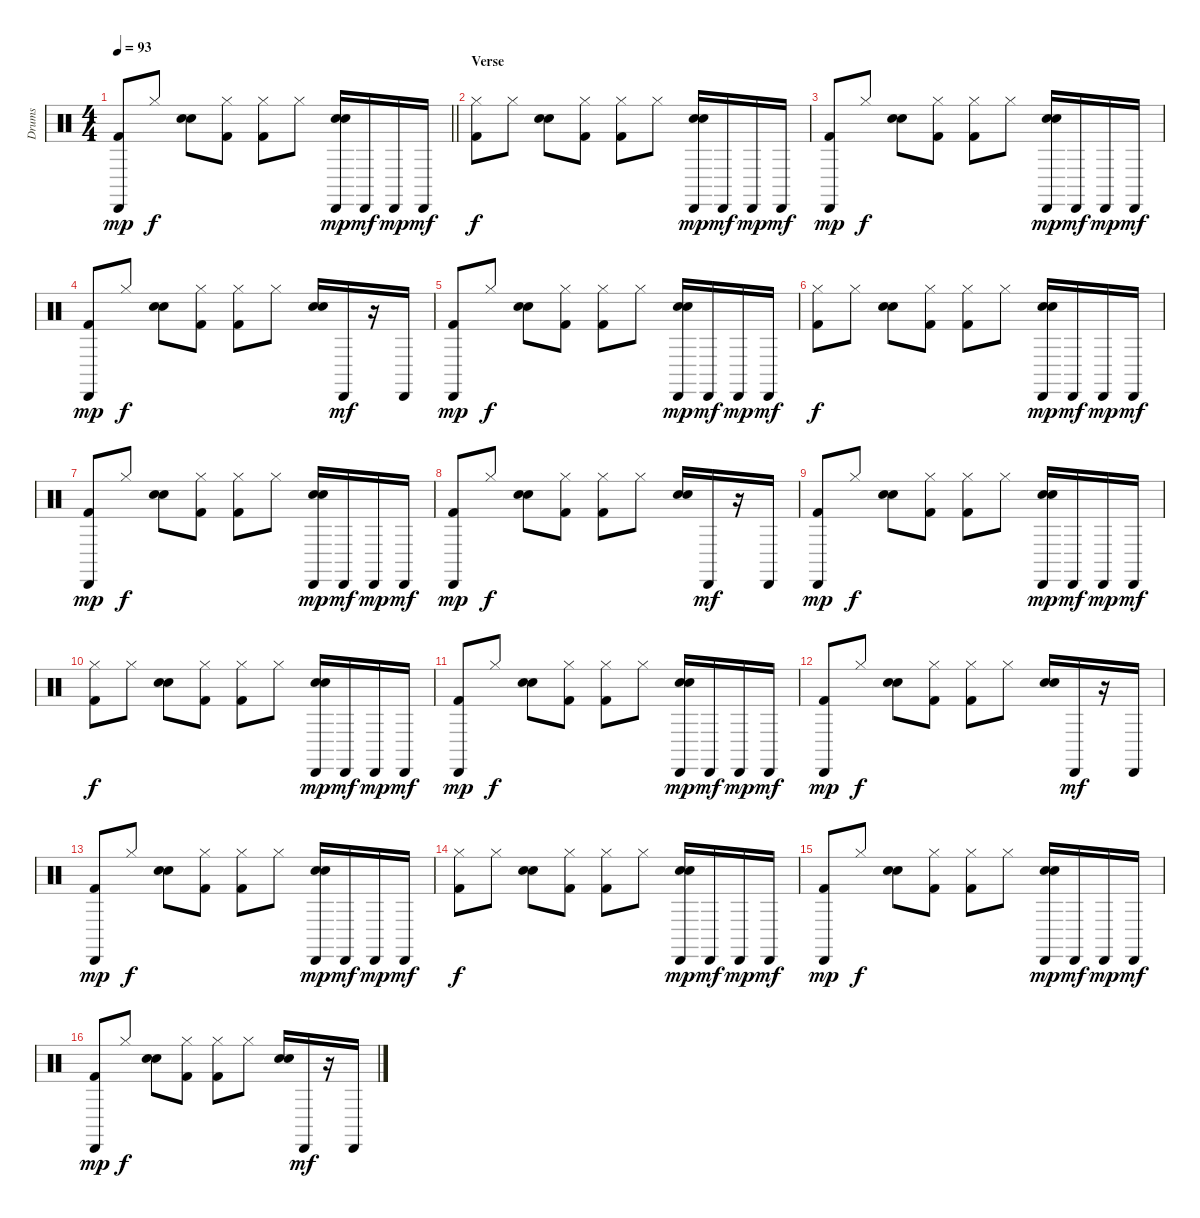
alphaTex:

\track ("Drums" "Drums") {instrument percussion}
\staff {score}
\articulation defaults
\ts (4 4)
\tempo 93
\clef neutral
\barLineRight lightlight
\ks c
("Kick (hit) 2" "Cabasa (hit)").8{dy mp} "Hi-Hat (closed)".8{dy f} ("Hand Clap (hit)" "Snare (hit) 2").8 ("Hi-Hat (closed)" "Kick (hit) 2").8 ("Hi-Hat (closed)" "Kick (hit) 2").8 "Hi-Hat (closed)".8 ("Hand Clap (hit)" "Snare (hit) 2" "Cabasa (hit)").16{dy mp} "Cabasa (hit)".16{dy mf} "Cabasa (hit)".16{dy mp} "Cabasa (hit)".16{dy mf} |
\section ("" "Verse")
("Hi-Hat (closed)" "Kick (hit) 2").8{dy f} "Hi-Hat (closed)".8 ("Snare (hit) 2" "Hand Clap (hit)").8 ("Kick (hit) 2" "Hi-Hat (closed)").8 ("Hi-Hat (closed)" "Kick (hit) 2").8 "Hi-Hat (closed)".8 ("Cabasa (hit)" "Snare (hit) 2" "Hand Clap (hit)").16{dy mp} "Cabasa (hit)".16{dy mf} "Cabasa (hit)".16{dy mp} "Cabasa (hit)".16{dy mf} |
("Cabasa (hit)" "Kick (hit) 2").8{dy mp} "Hi-Hat (closed)".8{dy f} ("Snare (hit) 2" "Hand Clap (hit)").8 ("Hi-Hat (closed)" "Kick (hit) 2").8 ("Hi-Hat (closed)" "Kick (hit) 2").8 "Hi-Hat (closed)".8 ("Cabasa (hit)" "Snare (hit) 2" "Hand Clap (hit)").16{dy mp} "Cabasa (hit)".16{dy mf} "Cabasa (hit)".16{dy mp} "Cabasa (hit)".16{dy mf} |
("Cabasa (hit)" "Kick (hit) 2").8{dy mp} "Hi-Hat (closed)".8{dy f} ("Snare (hit) 2" "Hand Clap (hit)").8 ("Kick (hit) 2" "Hi-Hat (closed)").8 ("Hi-Hat (closed)" "Kick (hit) 2").8 "Hi-Hat (closed)".8 ("Hand Clap (hit)" "Snare (hit) 2").16 "Cabasa (hit)".16{dy mf} r.16 "Cabasa (hit)".16 |
("Kick (hit) 2" "Cabasa (hit)").8{dy mp} "Hi-Hat (closed)".8{dy f} ("Hand Clap (hit)" "Snare (hit) 2").8 ("Kick (hit) 2" "Hi-Hat (closed)").8 ("Hi-Hat (closed)" "Kick (hit) 2").8 "Hi-Hat (closed)".8 ("Hand Clap (hit)" "Snare (hit) 2" "Cabasa (hit)").16{dy mp} "Cabasa (hit)".16{dy mf} "Cabasa (hit)".16{dy mp} "Cabasa (hit)".16{dy mf} |
("Hi-Hat (closed)" "Kick (hit) 2").8{dy f} "Hi-Hat (closed)".8 ("Snare (hit) 2" "Hand Clap (hit)").8 ("Kick (hit) 2" "Hi-Hat (closed)").8 ("Hi-Hat (closed)" "Kick (hit) 2").8 "Hi-Hat (closed)".8 ("Hand Clap (hit)" "Snare (hit) 2" "Cabasa (hit)").16{dy mp} "Cabasa (hit)".16{dy mf} "Cabasa (hit)".16{dy mp} "Cabasa (hit)".16{dy mf} |
("Cabasa (hit)" "Kick (hit) 2").8{dy mp} "Hi-Hat (closed)".8{dy f} ("Snare (hit) 2" "Hand Clap (hit)").8 ("Hi-Hat (closed)" "Kick (hit) 2").8 ("Kick (hit) 2" "Hi-Hat (closed)").8 "Hi-Hat (closed)".8 ("Cabasa (hit)" "Snare (hit) 2" "Hand Clap (hit)").16{dy mp} "Cabasa (hit)".16{dy mf} "Cabasa (hit)".16{dy mp} "Cabasa (hit)".16{dy mf} |
("Kick (hit) 2" "Cabasa (hit)").8{dy mp} "Hi-Hat (closed)".8{dy f} ("Snare (hit) 2" "Hand Clap (hit)").8 ("Hi-Hat (closed)" "Kick (hit) 2").8 ("Kick (hit) 2" "Hi-Hat (closed)").8 "Hi-Hat (closed)".8 ("Hand Clap (hit)" "Snare (hit) 2").16 "Cabasa (hit)".16{dy mf} r.16 "Cabasa (hit)".16 |
("Kick (hit) 2" "Cabasa (hit)").8{dy mp} "Hi-Hat (closed)".8{dy f} ("Snare (hit) 2" "Hand Clap (hit)").8 ("Kick (hit) 2" "Hi-Hat (closed)").8 ("Kick (hit) 2" "Hi-Hat (closed)").8 "Hi-Hat (closed)".8 ("Hand Clap (hit)" "Snare (hit) 2" "Cabasa (hit)").16{dy mp} "Cabasa (hit)".16{dy mf} "Cabasa (hit)".16{dy mp} "Cabasa (hit)".16{dy mf} |
("Hi-Hat (closed)" "Kick (hit) 2").8{dy f} "Hi-Hat (closed)".8 ("Hand Clap (hit)" "Snare (hit) 2").8 ("Kick (hit) 2" "Hi-Hat (closed)").8 ("Hi-Hat (closed)" "Kick (hit) 2").8 "Hi-Hat (closed)".8 ("Snare (hit) 2" "Cabasa (hit)" "Hand Clap (hit)").16{dy mp} "Cabasa (hit)".16{dy mf} "Cabasa (hit)".16{dy mp} "Cabasa (hit)".16{dy mf} |
("Kick (hit) 2" "Cabasa (hit)").8{dy mp} "Hi-Hat (closed)".8{dy f} ("Snare (hit) 2" "Hand Clap (hit)").8 ("Hi-Hat (closed)" "Kick (hit) 2").8 ("Kick (hit) 2" "Hi-Hat (closed)").8 "Hi-Hat (closed)".8 ("Hand Clap (hit)" "Snare (hit) 2" "Cabasa (hit)").16{dy mp} "Cabasa (hit)".16{dy mf} "Cabasa (hit)".16{dy mp} "Cabasa (hit)".16{dy mf} |
("Cabasa (hit)" "Kick (hit) 2").8{dy mp} "Hi-Hat (closed)".8{dy f} ("Snare (hit) 2" "Hand Clap (hit)").8 ("Hi-Hat (closed)" "Kick (hit) 2").8 ("Hi-Hat (closed)" "Kick (hit) 2").8 "Hi-Hat (closed)".8 ("Snare (hit) 2" "Hand Clap (hit)").16 "Cabasa (hit)".16{dy mf} r.16 "Cabasa (hit)".16 |
("Kick (hit) 2" "Cabasa (hit)").8{dy mp} "Hi-Hat (closed)".8{dy f} ("Hand Clap (hit)" "Snare (hit) 2").8 ("Kick (hit) 2" "Hi-Hat (closed)").8 ("Hi-Hat (closed)" "Kick (hit) 2").8 "Hi-Hat (closed)".8 ("Hand Clap (hit)" "Snare (hit) 2" "Cabasa (hit)").16{dy mp} "Cabasa (hit)".16{dy mf} "Cabasa (hit)".16{dy mp} "Cabasa (hit)".16{dy mf} |
("Hi-Hat (closed)" "Kick (hit) 2").8{dy f} "Hi-Hat (closed)".8 ("Hand Clap (hit)" "Snare (hit) 2").8 ("Kick (hit) 2" "Hi-Hat (closed)").8 ("Hi-Hat (closed)" "Kick (hit) 2").8 "Hi-Hat (closed)".8 ("Snare (hit) 2" "Cabasa (hit)" "Hand Clap (hit)").16{dy mp} "Cabasa (hit)".16{dy mf} "Cabasa (hit)".16{dy mp} "Cabasa (hit)".16{dy mf} |
("Cabasa (hit)" "Kick (hit) 2").8{dy mp} "Hi-Hat (closed)".8{dy f} ("Hand Clap (hit)" "Snare (hit) 2").8 ("Hi-Hat (closed)" "Kick (hit) 2").8 ("Kick (hit) 2" "Hi-Hat (closed)").8 "Hi-Hat (closed)".8 ("Cabasa (hit)" "Hand Clap (hit)" "Snare (hit) 2").16{dy mp} "Cabasa (hit)".16{dy mf} "Cabasa (hit)".16{dy mp} "Cabasa (hit)".16{dy mf} |
("Cabasa (hit)" "Kick (hit) 2").8{dy mp} "Hi-Hat (closed)".8{dy f} ("Snare (hit) 2" "Hand Clap (hit)").8 ("Kick (hit) 2" "Hi-Hat (closed)").8 ("Hi-Hat (closed)" "Kick (hit) 2").8 "Hi-Hat (closed)".8 ("Snare (hit) 2" "Hand Clap (hit)").16 "Cabasa (hit)".16{dy mf} r.16 "Cabasa (hit)".16
